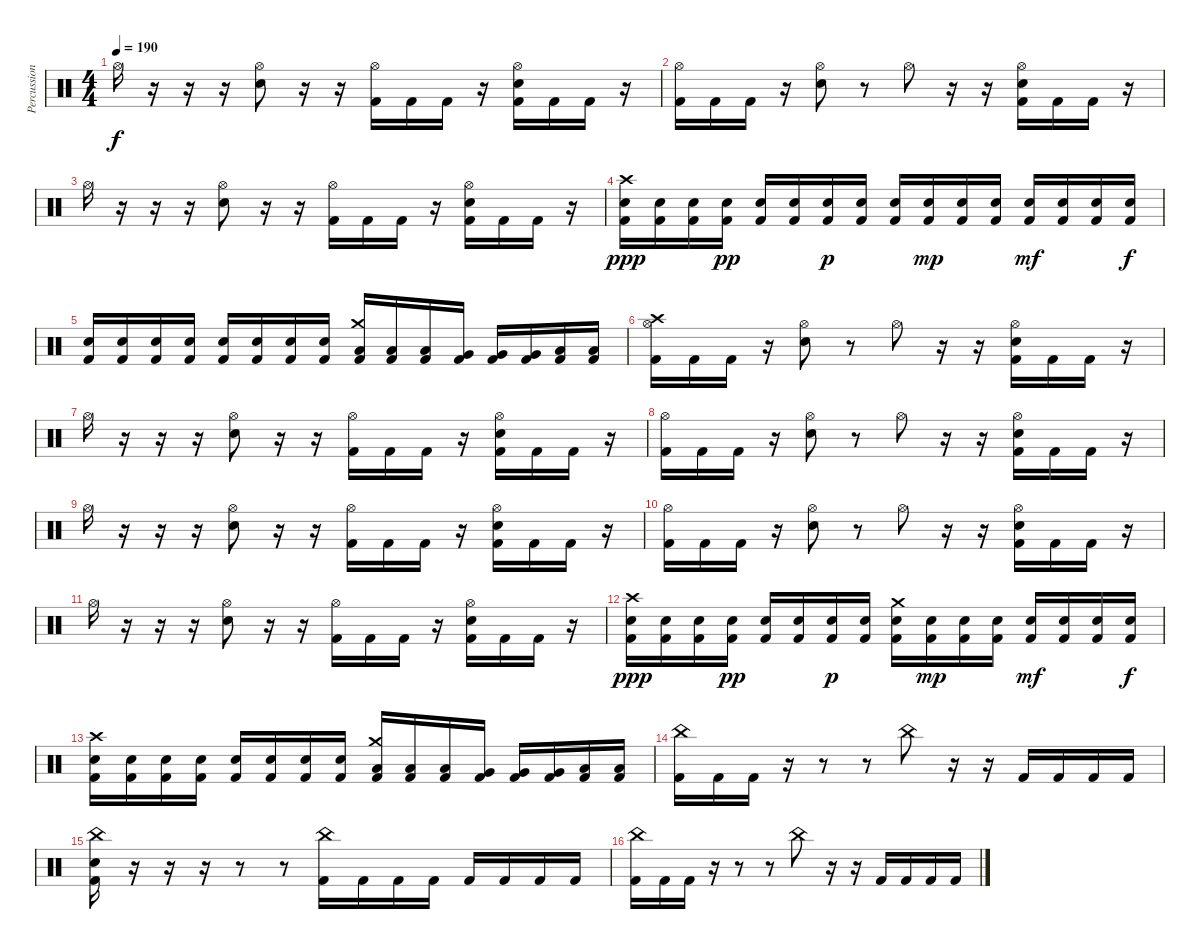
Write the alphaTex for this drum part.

\track ("Percussion" "Percussion") {instrument percussion}
\staff {score}
\articulation defaults
\ts (4 4)
\tempo 190
\clef neutral
\ks c "Hi-Hat (open)".16{dy f}
r.16 r.16 r.16 ("Hi-Hat (open)" "Snare (hit) 2").8 r.16 r.16 ("Hi-Hat (open)" "Kick (hit) 2").16 "Kick (hit) 2".16 "Kick (hit) 2".16 r.16 ("Hi-Hat (open)" "Snare (hit) 2" "Kick (hit) 2").16 "Kick (hit) 2".16 "Kick (hit) 2".16 r.16 |
("Hi-Hat (open)" "Kick (hit) 2").16 "Kick (hit) 2".16 "Kick (hit) 2".16 r.16 ("Hi-Hat (open)" "Snare (hit) 2").8 r.8 "Hi-Hat (open)".8 r.16 r.16 ("Hi-Hat (open)" "Snare (hit) 2" "Kick (hit) 2").16 "Kick (hit) 2".16 "Kick (hit) 2".16 r.16 |
"Hi-Hat (open)".16 r.16 r.16 r.16 ("Hi-Hat (open)" "Snare (hit) 2").8 r.16 r.16 ("Hi-Hat (open)" "Kick (hit) 2").16 "Kick (hit) 2".16 "Kick (hit) 2".16 r.16 ("Hi-Hat (open)" "Snare (hit) 2" "Kick (hit) 2").16 "Kick (hit) 2".16 "Kick (hit) 2".16 r.16 |
("Crash high (hit)" "Snare (hit) 2" "Kick (hit) 2").16{dy ppp} ("Snare (hit) 2" "Kick (hit) 2").16 ("Snare (hit) 2" "Kick (hit) 2").16 ("Snare (hit) 2" "Kick (hit) 2").16{dy pp} ("Snare (hit) 2" "Kick (hit) 2").16 ("Snare (hit) 2" "Kick (hit) 2").16 ("Snare (hit) 2" "Kick (hit) 2").16{dy p} ("Snare (hit) 2" "Kick (hit) 2").16 ("Snare (hit) 2" "Kick (hit) 2").16 ("Snare (hit) 2" "Kick (hit) 2").16{dy mp} ("Snare (hit) 2" "Kick (hit) 2").16 ("Snare (hit) 2" "Kick (hit) 2").16 ("Snare (hit) 2" "Kick (hit) 2").16{dy mf} ("Snare (hit) 2" "Kick (hit) 2").16 ("Snare (hit) 2" "Kick (hit) 2").16 ("Snare (hit) 2" "Kick (hit) 2").16{dy f} |
("Snare (hit) 2" "Kick (hit) 2").16 ("Snare (hit) 2" "Kick (hit) 2").16 ("Snare (hit) 2" "Kick (hit) 2").16 ("Snare (hit) 2" "Kick (hit) 2").16 ("Snare (hit) 2" "Kick (hit) 2").16 ("Snare (hit) 2" "Kick (hit) 2").16 ("Snare (hit) 2" "Kick (hit) 2").16 ("Snare (hit) 2" "Kick (hit) 2").16 ("Crash medium (hit)" "Low Tom (hit)" "Kick (hit) 2").16 ("Low Tom (hit)" "Kick (hit) 2").16 ("Low Tom (hit)" "Kick (hit) 2").16 ("Very Low Tom (hit)" "Kick (hit) 2").16 ("Very Low Tom (hit)" "Kick (hit) 2").16 ("Very Low Tom (hit)" "Kick (hit) 2").16 ("Low Floor Tom (hit)" "Kick (hit) 2").16 ("Low Floor Tom (hit)" "Kick (hit) 2").16 |
("Crash high (hit)" "Hi-Hat (open)" "Kick (hit) 2").16 "Kick (hit) 2".16 "Kick (hit) 2".16 r.16 ("Hi-Hat (open)" "Snare (hit) 2").8 r.8 "Hi-Hat (open)".8 r.16 r.16 ("Hi-Hat (open)" "Snare (hit) 2" "Kick (hit) 2").16 "Kick (hit) 2".16 "Kick (hit) 2".16 r.16 |
"Hi-Hat (open)".16 r.16 r.16 r.16 ("Hi-Hat (open)" "Snare (hit) 2").8 r.16 r.16 ("Hi-Hat (open)" "Kick (hit) 2").16 "Kick (hit) 2".16 "Kick (hit) 2".16 r.16 ("Hi-Hat (open)" "Snare (hit) 2" "Kick (hit) 2").16 "Kick (hit) 2".16 "Kick (hit) 2".16 r.16 |
("Hi-Hat (open)" "Kick (hit) 2").16 "Kick (hit) 2".16 "Kick (hit) 2".16 r.16 ("Hi-Hat (open)" "Snare (hit) 2").8 r.8 "Hi-Hat (open)".8 r.16 r.16 ("Hi-Hat (open)" "Snare (hit) 2" "Kick (hit) 2").16 "Kick (hit) 2".16 "Kick (hit) 2".16 r.16 |
"Hi-Hat (open)".16 r.16 r.16 r.16 ("Hi-Hat (open)" "Snare (hit) 2").8 r.16 r.16 ("Hi-Hat (open)" "Kick (hit) 2").16 "Kick (hit) 2".16 "Kick (hit) 2".16 r.16 ("Hi-Hat (open)" "Snare (hit) 2" "Kick (hit) 2").16 "Kick (hit) 2".16 "Kick (hit) 2".16 r.16 |
("Hi-Hat (open)" "Kick (hit) 2").16 "Kick (hit) 2".16 "Kick (hit) 2".16 r.16 ("Hi-Hat (open)" "Snare (hit) 2").8 r.8 "Hi-Hat (open)".8 r.16 r.16 ("Hi-Hat (open)" "Snare (hit) 2" "Kick (hit) 2").16 "Kick (hit) 2".16 "Kick (hit) 2".16 r.16 |
"Hi-Hat (open)".16 r.16 r.16 r.16 ("Hi-Hat (open)" "Snare (hit) 2").8 r.16 r.16 ("Hi-Hat (open)" "Kick (hit) 2").16 "Kick (hit) 2".16 "Kick (hit) 2".16 r.16 ("Hi-Hat (open)" "Snare (hit) 2" "Kick (hit) 2").16 "Kick (hit) 2".16 "Kick (hit) 2".16 r.16 |
("Crash high (hit)" "Snare (hit) 2" "Kick (hit) 2").16{dy ppp} ("Snare (hit) 2" "Kick (hit) 2").16 ("Snare (hit) 2" "Kick (hit) 2").16 ("Snare (hit) 2" "Kick (hit) 2").16{dy pp} ("Snare (hit) 2" "Kick (hit) 2").16 ("Snare (hit) 2" "Kick (hit) 2").16 ("Snare (hit) 2" "Kick (hit) 2").16{dy p} ("Snare (hit) 2" "Kick (hit) 2").16 ("Crash medium (hit)" "Snare (hit) 2" "Kick (hit) 2").16 ("Snare (hit) 2" "Kick (hit) 2").16{dy mp} ("Snare (hit) 2" "Kick (hit) 2").16 ("Snare (hit) 2" "Kick (hit) 2").16 ("Snare (hit) 2" "Kick (hit) 2").16{dy mf} ("Snare (hit) 2" "Kick (hit) 2").16 ("Snare (hit) 2" "Kick (hit) 2").16 ("Snare (hit) 2" "Kick (hit) 2").16{dy f} |
("Crash high (hit)" "Snare (hit) 2" "Kick (hit) 2").16 ("Snare (hit) 2" "Kick (hit) 2").16 ("Snare (hit) 2" "Kick (hit) 2").16 ("Snare (hit) 2" "Kick (hit) 2").16 ("Snare (hit) 2" "Kick (hit) 2").16 ("Snare (hit) 2" "Kick (hit) 2").16 ("Snare (hit) 2" "Kick (hit) 2").16 ("Snare (hit) 2" "Kick (hit) 2").16 ("Crash medium (hit)" "Low Tom (hit)" "Kick (hit) 2").16 ("Low Tom (hit)" "Kick (hit) 2").16 ("Low Tom (hit)" "Kick (hit) 2").16 ("Very Low Tom (hit)" "Kick (hit) 2").16 ("Very Low Tom (hit)" "Kick (hit) 2").16 ("Very Low Tom (hit)" "Kick (hit) 2").16 ("Low Floor Tom (hit)" "Kick (hit) 2").16 ("Low Floor Tom (hit)" "Kick (hit) 2").16 |
("China (hit)" "Kick (hit) 2").16 "Kick (hit) 2".16 "Kick (hit) 2".16 r.16 r.8 r.8 "China (hit)".8 r.16 r.16 "Kick (hit) 2".16 "Kick (hit) 2".16 "Kick (hit) 2".16 "Kick (hit) 2".16 |
("China (hit)" "Snare (hit) 2" "Kick (hit) 2").16 r.16 r.16 r.16 r.8 r.8 ("China (hit)" "Kick (hit) 2").16 "Kick (hit) 2".16 "Kick (hit) 2".16 "Kick (hit) 2".16 "Kick (hit) 2".16 "Kick (hit) 2".16 "Kick (hit) 2".16 "Kick (hit) 2".16 |
("China (hit)" "Kick (hit) 2").16 "Kick (hit) 2".16 "Kick (hit) 2".16 r.16 r.8 r.8 "China (hit)".8 r.16 r.16 "Kick (hit) 2".16 "Kick (hit) 2".16 "Kick (hit) 2".16 "Kick (hit) 2".16
